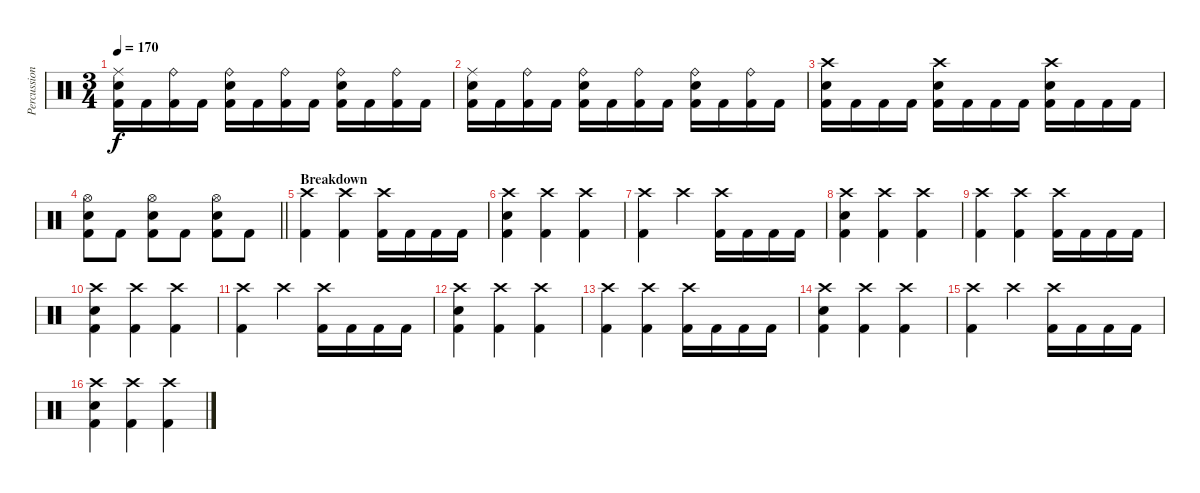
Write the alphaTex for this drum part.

\track ("Percussion" "Percussion") {instrument percussion}
\staff {score}
\articulation defaults
\ts (3 4)
\tempo 170
\clef neutral
\ks c
("Ride (middle)" "Electric Snare (hit)" "Kick (hit) 2").16{dy f} "Kick (hit) 2".16 ("Ride (bell)" "Kick (hit) 2").16 "Kick (hit) 2".16 ("Ride (bell)" "Electric Snare (hit)" "Kick (hit) 2").16 "Kick (hit) 2".16 ("Ride (bell)" "Kick (hit) 2").16 "Kick (hit) 2".16 ("Ride (bell)" "Electric Snare (hit)" "Kick (hit) 2").16 "Kick (hit) 2".16 ("Ride (bell)" "Kick (hit) 2").16 "Kick (hit) 2".16 |
("Ride (middle)" "Electric Snare (hit)" "Kick (hit) 2").16 "Kick (hit) 2".16 ("Ride (bell)" "Kick (hit) 2").16 "Kick (hit) 2".16 ("Ride (bell)" "Electric Snare (hit)" "Kick (hit) 2").16 "Kick (hit) 2".16 ("Ride (bell)" "Kick (hit) 2").16 "Kick (hit) 2".16 ("Ride (bell)" "Electric Snare (hit)" "Kick (hit) 2").16 "Kick (hit) 2".16 ("Ride (bell)" "Kick (hit) 2").16 "Kick (hit) 2".16 |
("Crash high (hit)" "Electric Snare (hit)" "Kick (hit) 2").16 "Kick (hit) 2".16 "Kick (hit) 2".16 "Kick (hit) 2".16 ("Crash high (hit)" "Electric Snare (hit)" "Kick (hit) 2").16 "Kick (hit) 2".16 "Kick (hit) 2".16 "Kick (hit) 2".16 ("Crash high (hit)" "Electric Snare (hit)" "Kick (hit) 2").16 "Kick (hit) 2".16 "Kick (hit) 2".16 "Kick (hit) 2".16 |
\barLineRight lightlight
("Hi-Hat (open)" "Electric Snare (hit)" "Kick (hit) 2").8 "Kick (hit) 2".8 ("Hi-Hat (open)" "Electric Snare (hit)" "Kick (hit) 2").8 "Kick (hit) 2".8 ("Hi-Hat (open)" "Electric Snare (hit)" "Kick (hit) 2").8 "Kick (hit) 2".8 |
\section ("" "Breakdown")
("Crash high (hit)" "Kick (hit) 2").4 ("Crash high (hit)" "Kick (hit) 2").4 ("Crash high (hit)" "Kick (hit) 2").16 "Kick (hit) 2".16 "Kick (hit) 2".16 "Kick (hit) 2".16 |
("Crash high (hit)" "Electric Snare (hit)" "Kick (hit) 2").4 ("Crash high (hit)" "Kick (hit) 2").4 ("Crash high (hit)" "Kick (hit) 2").4 |
("Crash high (hit)" "Kick (hit) 2").4 "Crash high (hit)".4 ("Crash high (hit)" "Kick (hit) 2").16 "Kick (hit) 2".16 "Kick (hit) 2".16 "Kick (hit) 2".16 |
("Crash high (hit)" "Electric Snare (hit)" "Kick (hit) 2").4 ("Crash high (hit)" "Kick (hit) 2").4 ("Crash high (hit)" "Kick (hit) 2").4 |
("Crash high (hit)" "Kick (hit) 2").4 ("Crash high (hit)" "Kick (hit) 2").4 ("Crash high (hit)" "Kick (hit) 2").16 "Kick (hit) 2".16 "Kick (hit) 2".16 "Kick (hit) 2".16 |
("Crash high (hit)" "Electric Snare (hit)" "Kick (hit) 2").4 ("Crash high (hit)" "Kick (hit) 2").4 ("Crash high (hit)" "Kick (hit) 2").4 |
("Crash high (hit)" "Kick (hit) 2").4 "Crash high (hit)".4 ("Crash high (hit)" "Kick (hit) 2").16 "Kick (hit) 2".16 "Kick (hit) 2".16 "Kick (hit) 2".16 |
("Crash high (hit)" "Electric Snare (hit)" "Kick (hit) 2").4 ("Crash high (hit)" "Kick (hit) 2").4 ("Crash high (hit)" "Kick (hit) 2").4 |
("Crash high (hit)" "Kick (hit) 2").4 ("Crash high (hit)" "Kick (hit) 2").4 ("Crash high (hit)" "Kick (hit) 2").16 "Kick (hit) 2".16 "Kick (hit) 2".16 "Kick (hit) 2".16 |
("Crash high (hit)" "Electric Snare (hit)" "Kick (hit) 2").4 ("Crash high (hit)" "Kick (hit) 2").4 ("Crash high (hit)" "Kick (hit) 2").4 |
("Crash high (hit)" "Kick (hit) 2").4 "Crash high (hit)".4 ("Crash high (hit)" "Kick (hit) 2").16 "Kick (hit) 2".16 "Kick (hit) 2".16 "Kick (hit) 2".16 |
("Crash high (hit)" "Electric Snare (hit)" "Kick (hit) 2").4 ("Crash high (hit)" "Kick (hit) 2").4 ("Crash high (hit)" "Kick (hit) 2").4
